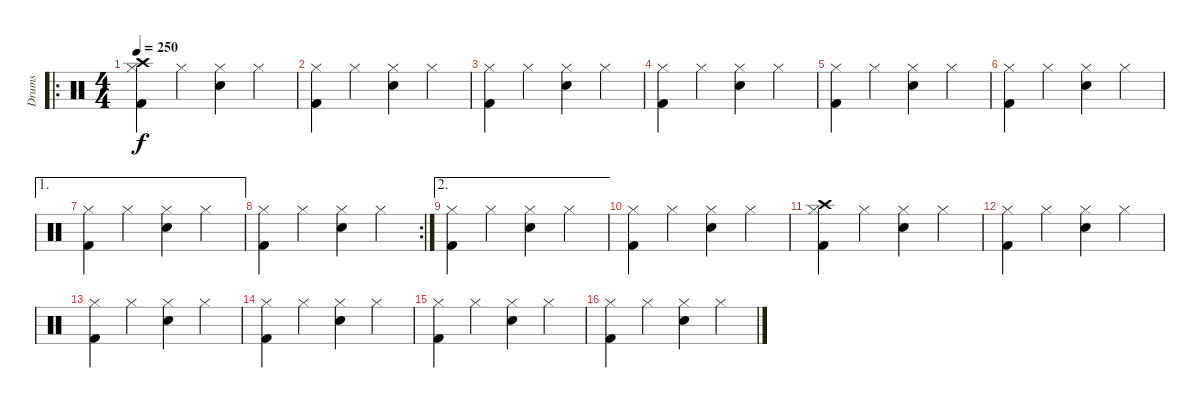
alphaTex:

\track ("Drums" "Drums") {instrument percussion}
\staff {score}
\articulation defaults
\ro
\ts (4 4)
\tempo 250
\clef neutral
\ks c
("Crash high (hit)" "Hi-Hat (closed)" "Kick (hit) 2").4{dy f} "Hi-Hat (closed)".4 ("Hi-Hat (closed)" "Snare (hit) 2").4 "Hi-Hat (closed)".4 |
("Hi-Hat (closed)" "Kick (hit) 2").4 "Hi-Hat (closed)".4 ("Hi-Hat (closed)" "Snare (hit) 2").4 "Hi-Hat (closed)".4 |
("Hi-Hat (closed)" "Kick (hit) 2").4 "Hi-Hat (closed)".4 ("Hi-Hat (closed)" "Snare (hit) 2").4 "Hi-Hat (closed)".4 |
("Hi-Hat (closed)" "Kick (hit) 2").4 "Hi-Hat (closed)".4 ("Hi-Hat (closed)" "Snare (hit) 2").4 "Hi-Hat (closed)".4 |
("Hi-Hat (closed)" "Kick (hit) 2").4 "Hi-Hat (closed)".4 ("Hi-Hat (closed)" "Snare (hit) 2").4 "Hi-Hat (closed)".4 |
("Hi-Hat (closed)" "Kick (hit) 2").4 "Hi-Hat (closed)".4 ("Hi-Hat (closed)" "Snare (hit) 2").4 "Hi-Hat (closed)".4 |
\ae 1
("Hi-Hat (closed)" "Kick (hit) 2").4 "Hi-Hat (closed)".4 ("Hi-Hat (closed)" "Snare (hit) 2").4 "Hi-Hat (closed)".4 |
\rc 2
("Hi-Hat (closed)" "Kick (hit) 2").4 "Hi-Hat (closed)".4 ("Hi-Hat (closed)" "Snare (hit) 2").4 "Hi-Hat (closed)".4 |
\ae 2
("Hi-Hat (closed)" "Kick (hit) 2").4 "Hi-Hat (closed)".4 ("Hi-Hat (closed)" "Snare (hit) 2").4 "Hi-Hat (closed)".4 |
("Hi-Hat (closed)" "Kick (hit) 2").4 "Hi-Hat (closed)".4 ("Hi-Hat (closed)" "Snare (hit) 2").4 "Hi-Hat (closed)".4 |
("Crash high (hit)" "Hi-Hat (closed)" "Kick (hit) 2").4 "Hi-Hat (closed)".4 ("Hi-Hat (closed)" "Snare (hit) 2").4 "Hi-Hat (closed)".4 |
("Hi-Hat (closed)" "Kick (hit) 2").4 "Hi-Hat (closed)".4 ("Hi-Hat (closed)" "Snare (hit) 2").4 "Hi-Hat (closed)".4 |
("Hi-Hat (closed)" "Kick (hit) 2").4 "Hi-Hat (closed)".4 ("Hi-Hat (closed)" "Snare (hit) 2").4 "Hi-Hat (closed)".4 |
("Hi-Hat (closed)" "Kick (hit) 2").4 "Hi-Hat (closed)".4 ("Hi-Hat (closed)" "Snare (hit) 2").4 "Hi-Hat (closed)".4 |
("Hi-Hat (closed)" "Kick (hit) 2").4 "Hi-Hat (closed)".4 ("Hi-Hat (closed)" "Snare (hit) 2").4 "Hi-Hat (closed)".4 |
("Hi-Hat (closed)" "Kick (hit) 2").4 "Hi-Hat (closed)".4 ("Hi-Hat (closed)" "Snare (hit) 2").4 "Hi-Hat (closed)".4
